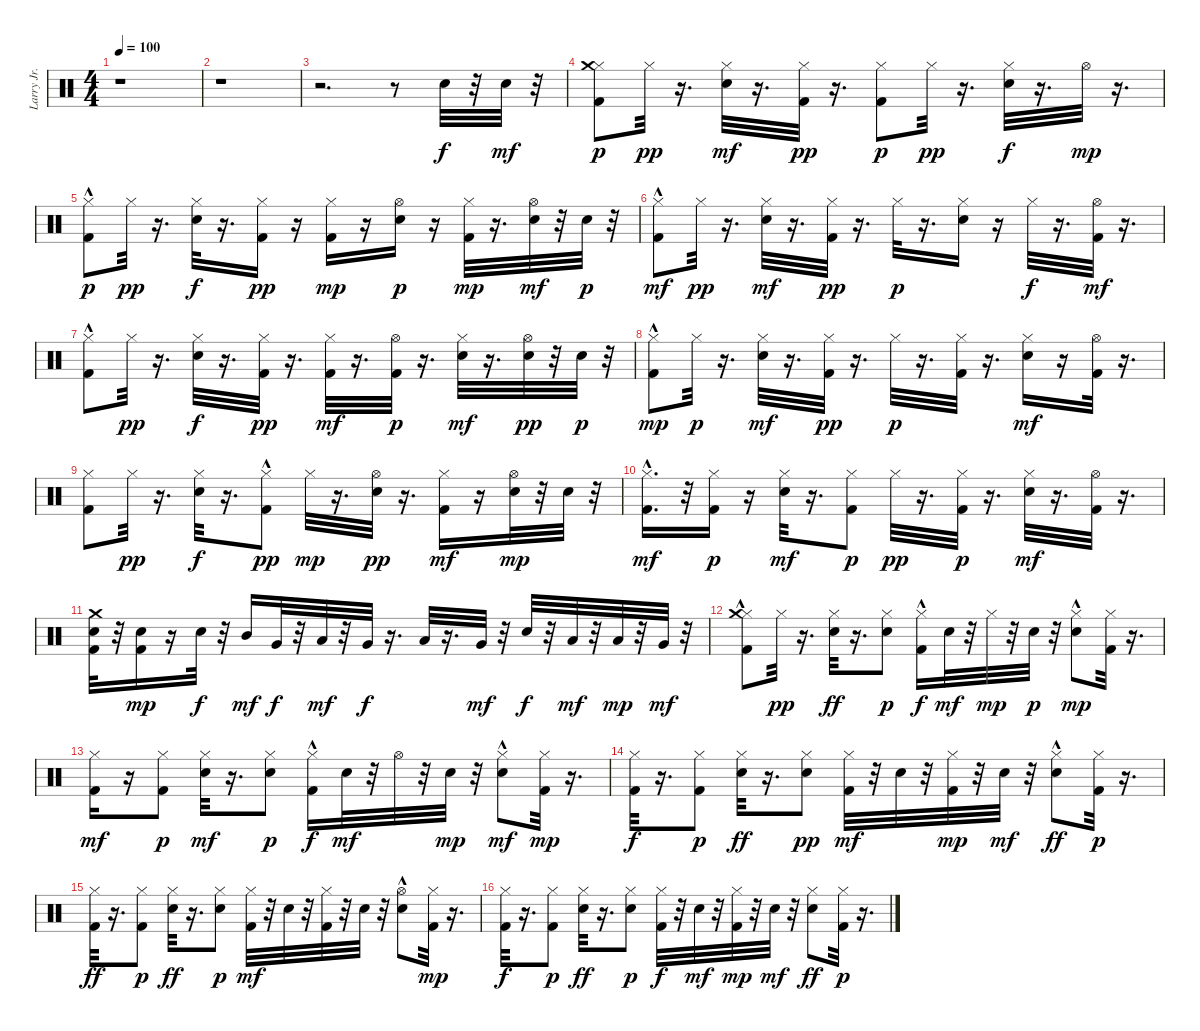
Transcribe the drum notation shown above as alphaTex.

\track ("Larry Jr." "Larry Jr.") {instrument percussion}
\staff {score}
\articulation defaults
\ts (4 4)
\tempo 100
\clef neutral
\ks c
r.1{dy mf} |
r.1 |
r.2{d} r.8 "Electric Snare (hit)".32{dy f} r.32 "Electric Snare (hit)".32{dy mf} r.32 |
("Kick (hit) 2" "Hi-Hat (closed)" "Crash medium (hit)").8{dy p} "Hi-Hat (closed)".32{dy pp} r.16{d} ("Electric Snare (hit)" "Hi-Hat (closed)").32{dy mf} r.16{d} ("Kick (hit) 2" "Hi-Hat (closed)").32{dy pp} r.16{d} ("Kick (hit) 2" "Hi-Hat (closed)").8{dy p} "Hi-Hat (closed)".32{dy pp} r.16{d} ("Electric Snare (hit)" "Hi-Hat (closed)").32{dy f} r.16{d} "Hi-Hat (open)".32{dy mp} r.16{d} |
("Kick (hit) 2"{hac} "Hi-Hat (closed)").8{dy p} "Hi-Hat (closed)".32{dy pp} r.16{d} ("Electric Snare (hit)" "Hi-Hat (closed)").32{dy f} r.16{d} ("Kick (hit) 2" "Hi-Hat (closed)").16{dy pp} r.16 ("Kick (hit) 2" "Hi-Hat (closed)").16{dy mp} r.16 ("Electric Snare (hit)" "Hi-Hat (open)").16{dy p} r.16 ("Kick (hit) 2" "Hi-Hat (closed)").32{dy mp} r.16{d} ("Electric Snare (hit)" "Hi-Hat (open)").32{dy mf} r.32 "Electric Snare (hit)".32{dy p} r.32 |
("Kick (hit) 2"{hac} "Hi-Hat (closed)").8{dy mf} "Hi-Hat (closed)".32{dy pp} r.16{d} ("Electric Snare (hit)" "Hi-Hat (closed)").32{dy mf} r.16{d} ("Kick (hit) 2" "Hi-Hat (closed)").32{dy pp} r.16{d} "Hi-Hat (closed)".32{dy p} r.16{d} ("Electric Snare (hit)" "Hi-Hat (closed)").16 r.16 "Hi-Hat (closed)".32{dy f} r.16{d} ("Kick (hit) 2" "Hi-Hat (open)").32{dy mf} r.16{d} |
("Kick (hit) 2"{hac} "Hi-Hat (closed)").8 "Hi-Hat (closed)".32{dy pp} r.16{d} ("Electric Snare (hit)" "Hi-Hat (closed)").32{dy f} r.16{d} ("Kick (hit) 2" "Hi-Hat (closed)").32{dy pp} r.16{d} ("Kick (hit) 2" "Hi-Hat (closed)").32{dy mf} r.16{d} ("Kick (hit) 2" "Hi-Hat (open)").32{dy p} r.16{d} ("Electric Snare (hit)" "Hi-Hat (closed)").32{dy mf} r.16{d} ("Electric Snare (hit)" "Hi-Hat (open)").32{dy pp} r.32 "Electric Snare (hit)".32{dy p} r.32 |
("Kick (hit) 2"{hac} "Hi-Hat (closed)").8{dy mp} "Hi-Hat (closed)".32{dy p} r.16{d} ("Electric Snare (hit)" "Hi-Hat (closed)").32{dy mf} r.16{d} ("Kick (hit) 2" "Hi-Hat (closed)").32{dy pp} r.16{d} "Hi-Hat (closed)".32{dy p} r.16{d} ("Kick (hit) 2" "Hi-Hat (closed)").32 r.16{d} ("Electric Snare (hit)" "Hi-Hat (closed)").16{dy mf} r.16 ("Kick (hit) 2" "Hi-Hat (open)").32 r.16{d} |
("Kick (hit) 2" "Hi-Hat (closed)").8 "Hi-Hat (closed)".32{dy pp} r.16{d} ("Electric Snare (hit)" "Hi-Hat (closed)").32{dy f} r.16{d} ("Kick (hit) 2"{hac} "Hi-Hat (closed)").8{dy pp} "Hi-Hat (closed)".32{dy mp} r.16{d} ("Electric Snare (hit)" "Hi-Hat (open)").32{dy pp} r.16{d} ("Kick (hit) 2" "Hi-Hat (closed)").16{dy mf} r.16 ("Electric Snare (hit)" "Hi-Hat (open)").32{dy mp} r.32 "Electric Snare (hit)".32 r.32 |
("Kick (hit) 2"{hac} "Hi-Hat (closed)").16{d dy mf} r.32 ("Kick (hit) 2" "Hi-Hat (closed)").16{dy p} r.16 ("Electric Snare (hit)" "Hi-Hat (closed)").32{dy mf} r.16{d} ("Kick (hit) 2" "Hi-Hat (closed)").8{dy p} "Hi-Hat (closed)".32{dy pp} r.16{d} ("Kick (hit) 2" "Hi-Hat (closed)").32{dy p} r.16{d} ("Electric Snare (hit)" "Hi-Hat (closed)").32{dy mf} r.16{d} ("Kick (hit) 2" "Hi-Hat (open)").32 r.16{d} |
("Kick (hit) 2" "Electric Snare (hit)" "Crash medium (hit)").32 r.32 ("Kick (hit) 2" "Electric Snare (hit)").16{dy mp} r.16 "Electric Snare (hit)".32{dy f} r.32 "Mid Tom (hit)".16{dy mf} "Very Low Tom (hit)".32{dy f} r.32 "Low Tom (hit)".32{dy mf} r.32 "Very Low Tom (hit)".32{dy f} r.16{d} "Low Tom (hit)".32 r.16{d} "Very Low Tom (hit)".32{dy mf} r.32 "Electric Snare (hit)".32{dy f} r.32 "Low Tom (hit)".32{dy mf} r.32 "Low Tom (hit)".32{dy mp} r.32 "Very Low Tom (hit)".32{dy mf} r.32 |
("Kick (hit) 2"{hac} "Hi-Hat (closed)" "Crash medium (hit)").8 "Hi-Hat (closed)".32{dy pp} r.16{d} ("Electric Snare (hit)" "Hi-Hat (closed)").32{dy ff} r.16{d} ("Electric Snare (hit)" "Hi-Hat (closed)").8{dy p} ("Kick (hit) 2"{hac} "Hi-Hat (closed)").16{dy f} "Electric Snare (hit)".32{dy mf} r.32 "Hi-Hat (closed)".32{dy mp} r.32 "Electric Snare (hit)".32{dy p} r.32 ("Electric Snare (hit)"{hac} "Hi-Hat (closed)").8{dy mp} ("Kick (hit) 2" "Hi-Hat (closed)").32 r.16{d} |
("Kick (hit) 2" "Hi-Hat (closed)").16{dy mf} r.16 ("Kick (hit) 2" "Hi-Hat (closed)").8{dy p} ("Electric Snare (hit)" "Hi-Hat (closed)").32{dy mf} r.16{d} ("Electric Snare (hit)" "Hi-Hat (closed)").8{dy p} ("Kick (hit) 2"{hac} "Hi-Hat (closed)").16{dy f} "Electric Snare (hit)".32{dy mf} r.32 "Hi-Hat (open)".32 r.32 "Electric Snare (hit)".32{dy mp} r.32 ("Electric Snare (hit)"{hac} "Hi-Hat (closed)").8{dy mf} ("Kick (hit) 2" "Hi-Hat (closed)").32{dy mp} r.16{d} |
("Kick (hit) 2" "Hi-Hat (closed)").32{dy f} r.16{d} ("Kick (hit) 2" "Hi-Hat (closed)").8{dy p} ("Electric Snare (hit)" "Hi-Hat (closed)").32{dy ff} r.16{d} ("Electric Snare (hit)" "Hi-Hat (closed)").8{dy pp} ("Kick (hit) 2" "Hi-Hat (closed)").32{dy mf} r.32 "Electric Snare (hit)".32 r.32 ("Kick (hit) 2" "Hi-Hat (closed)").32{dy mp} r.32 "Electric Snare (hit)".32{dy mf} r.32 ("Electric Snare (hit)"{hac} "Hi-Hat (closed)").8{dy ff} ("Kick (hit) 2" "Hi-Hat (closed)").32{dy p} r.16{d} |
("Kick (hit) 2" "Hi-Hat (closed)").32{dy ff} r.16{d} ("Kick (hit) 2" "Hi-Hat (closed)").8{dy p} ("Electric Snare (hit)" "Hi-Hat (closed)").32{dy ff} r.16{d} ("Electric Snare (hit)" "Hi-Hat (closed)").8{dy p} ("Kick (hit) 2" "Hi-Hat (closed)").32{dy mf} r.32 "Electric Snare (hit)".32 r.32 ("Kick (hit) 2" "Hi-Hat (closed)").32 r.32 "Electric Snare (hit)".32 r.32 ("Electric Snare (hit)"{hac} "Hi-Hat (open)").8 ("Kick (hit) 2" "Hi-Hat (closed)").32{dy mp} r.16{d} |
("Kick (hit) 2" "Hi-Hat (closed)").32{dy f} r.16{d} ("Kick (hit) 2" "Hi-Hat (closed)").8{dy p} ("Electric Snare (hit)" "Hi-Hat (closed)").32{dy ff} r.16{d} ("Electric Snare (hit)" "Hi-Hat (closed)").8{dy p} ("Kick (hit) 2" "Hi-Hat (closed)").32{dy f} r.32 "Electric Snare (hit)".32{dy mf} r.32 ("Kick (hit) 2" "Hi-Hat (closed)").32{dy mp} r.32 "Electric Snare (hit)".32{dy mf} r.32 ("Electric Snare (hit)" "Hi-Hat (closed)").8{dy ff} ("Kick (hit) 2" "Hi-Hat (closed)").32{dy p} r.16{d}
